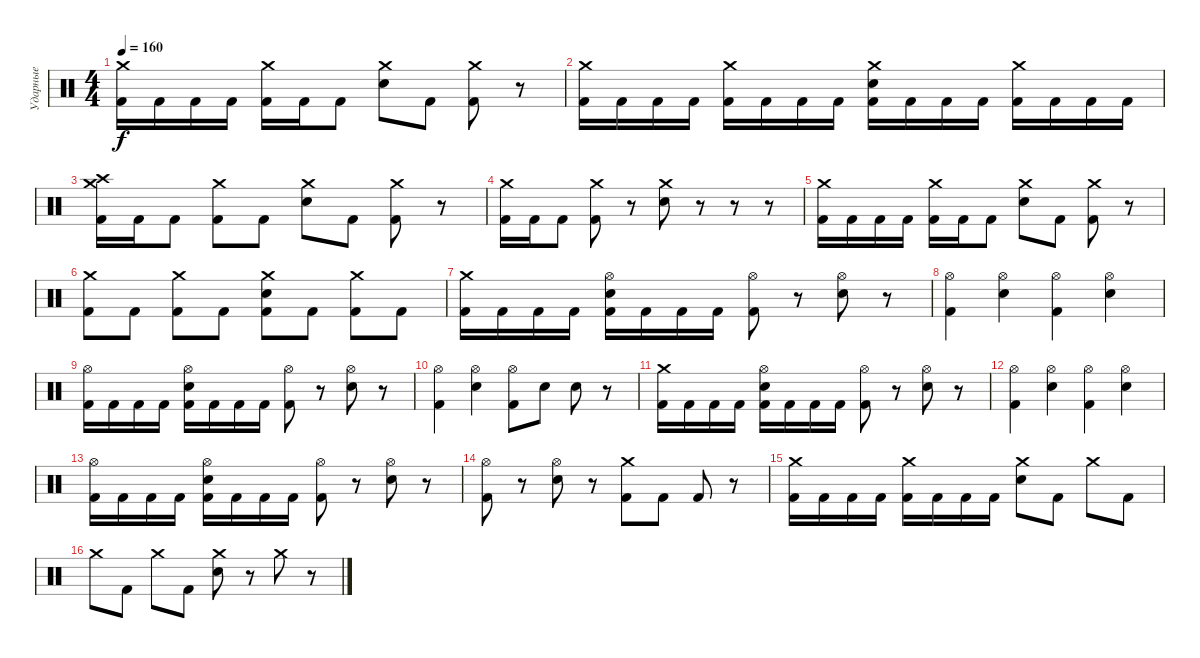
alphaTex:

\track ("Ударные" "Ударные") {instrument percussion}
\staff {score}
\articulation defaults
\ts (4 4)
\tempo 160
\clef neutral
\ks c
("Crash medium (hit)" "Kick (hit) 2").16{dy f} "Kick (hit) 2".16 "Kick (hit) 2".16 "Kick (hit) 2".16 ("Crash medium (hit)" "Kick (hit) 2").16 "Kick (hit) 2".16 "Kick (hit) 2".8 ("Crash medium (hit)" "Electric Snare (hit)").8 "Kick (hit) 2".8 ("Crash medium (hit)" "Kick (hit) 2").8 r.8 |
("Crash medium (hit)" "Kick (hit) 2").16 "Kick (hit) 2".16 "Kick (hit) 2".16 "Kick (hit) 2".16 ("Crash medium (hit)" "Kick (hit) 2").16 "Kick (hit) 2".16 "Kick (hit) 2".16 "Kick (hit) 2".16 ("Crash medium (hit)" "Electric Snare (hit)" "Kick (hit) 2").16 "Kick (hit) 2".16 "Kick (hit) 2".16 "Kick (hit) 2".16 ("Crash medium (hit)" "Kick (hit) 2").16 "Kick (hit) 2".16 "Kick (hit) 2".16 "Kick (hit) 2".16 |
("Crash medium (hit)" "Crash high (hit)" "Kick (hit) 2").16 "Kick (hit) 2".16 "Kick (hit) 2".8 ("Crash medium (hit)" "Kick (hit) 2").8 "Kick (hit) 2".8 ("Crash medium (hit)" "Electric Snare (hit)").8 "Kick (hit) 2".8 ("Crash medium (hit)" "Kick (hit) 2").8 r.8 |
("Crash medium (hit)" "Kick (hit) 2").16 "Kick (hit) 2".16 "Kick (hit) 2".8 ("Crash medium (hit)" "Kick (hit) 2").8 r.8 ("Crash medium (hit)" "Electric Snare (hit)").8 r.8 r.8 r.8 |
("Crash medium (hit)" "Kick (hit) 2").16 "Kick (hit) 2".16 "Kick (hit) 2".16 "Kick (hit) 2".16 ("Crash medium (hit)" "Kick (hit) 2").16 "Kick (hit) 2".16 "Kick (hit) 2".8 ("Crash medium (hit)" "Electric Snare (hit)").8 "Kick (hit) 2".8 ("Crash medium (hit)" "Kick (hit) 2").8 r.8 |
("Crash medium (hit)" "Kick (hit) 2").8 "Kick (hit) 2".8 ("Crash medium (hit)" "Kick (hit) 2").8 "Kick (hit) 2".8 ("Crash medium (hit)" "Electric Snare (hit)" "Kick (hit) 2").8 "Kick (hit) 2".8 ("Crash medium (hit)" "Kick (hit) 2").8 "Kick (hit) 2".8 |
("Crash medium (hit)" "Kick (hit) 2").16 "Kick (hit) 2".16 "Kick (hit) 2".16 "Kick (hit) 2".16 ("Hi-Hat (open)" "Electric Snare (hit)" "Kick (hit) 2").16 "Kick (hit) 2".16 "Kick (hit) 2".16 "Kick (hit) 2".16 ("Hi-Hat (open)" "Kick (hit) 2").8 r.8 ("Hi-Hat (open)" "Electric Snare (hit)").8 r.8 |
("Hi-Hat (open)" "Kick (hit) 2").4 ("Hi-Hat (open)" "Electric Snare (hit)").4 ("Hi-Hat (open)" "Kick (hit) 2").4 ("Hi-Hat (open)" "Electric Snare (hit)").4 |
("Hi-Hat (open)" "Kick (hit) 2").16 "Kick (hit) 2".16 "Kick (hit) 2".16 "Kick (hit) 2".16 ("Hi-Hat (open)" "Electric Snare (hit)" "Kick (hit) 2").16 "Kick (hit) 2".16 "Kick (hit) 2".16 "Kick (hit) 2".16 ("Hi-Hat (open)" "Kick (hit) 2").8 r.8 ("Hi-Hat (open)" "Electric Snare (hit)").8 r.8 |
("Hi-Hat (open)" "Kick (hit) 2").4 ("Hi-Hat (open)" "Electric Snare (hit)").4 ("Hi-Hat (open)" "Kick (hit) 2").8 "Electric Snare (hit)".8 "Electric Snare (hit)".8 r.8 |
("Crash medium (hit)" "Kick (hit) 2").16 "Kick (hit) 2".16 "Kick (hit) 2".16 "Kick (hit) 2".16 ("Hi-Hat (open)" "Electric Snare (hit)" "Kick (hit) 2").16 "Kick (hit) 2".16 "Kick (hit) 2".16 "Kick (hit) 2".16 ("Hi-Hat (open)" "Kick (hit) 2").8 r.8 ("Hi-Hat (open)" "Electric Snare (hit)").8 r.8 |
("Hi-Hat (open)" "Kick (hit) 2").4 ("Hi-Hat (open)" "Electric Snare (hit)").4 ("Hi-Hat (open)" "Kick (hit) 2").4 ("Hi-Hat (open)" "Electric Snare (hit)").4 |
("Hi-Hat (open)" "Kick (hit) 2").16 "Kick (hit) 2".16 "Kick (hit) 2".16 "Kick (hit) 2".16 ("Hi-Hat (open)" "Electric Snare (hit)" "Kick (hit) 2").16 "Kick (hit) 2".16 "Kick (hit) 2".16 "Kick (hit) 2".16 ("Hi-Hat (open)" "Kick (hit) 2").8 r.8 ("Hi-Hat (open)" "Electric Snare (hit)").8 r.8 |
("Hi-Hat (open)" "Kick (hit) 2").8 r.8 ("Hi-Hat (open)" "Electric Snare (hit)").8 r.8 ("Crash medium (hit)" "Kick (hit) 2").8 "Kick (hit) 2".8 "Kick (hit) 2".8 r.8 |
("Crash medium (hit)" "Kick (hit) 2").16 "Kick (hit) 2".16 "Kick (hit) 2".16 "Kick (hit) 2".16 ("Crash medium (hit)" "Kick (hit) 2").16 "Kick (hit) 2".16 "Kick (hit) 2".16 "Kick (hit) 2".16 ("Crash medium (hit)" "Electric Snare (hit)").8 "Kick (hit) 2".8 "Crash medium (hit)".8 "Kick (hit) 2".8 |
"Crash medium (hit)".8 "Kick (hit) 2".8 "Crash medium (hit)".8 "Kick (hit) 2".8 ("Crash medium (hit)" "Electric Snare (hit)").8 r.8 "Crash medium (hit)".8 r.8
